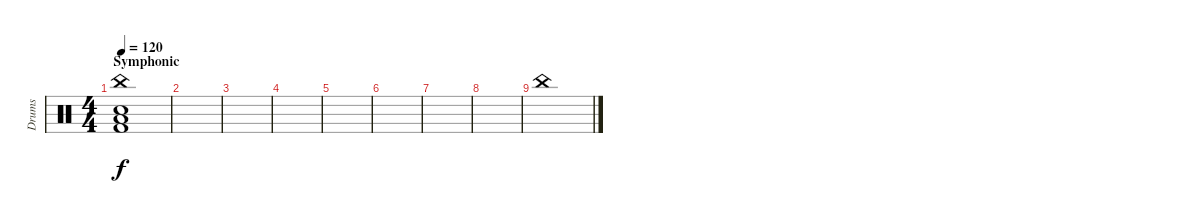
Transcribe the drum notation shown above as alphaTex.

\track ("Drums" "Drums") {instrument percussion}
\staff {score}
\articulation defaults
\ts (4 4)
\section ("" "Symphonic")
\tempo 120
\clef neutral
\ks c
("China (hit)" "Low Tom (hit)" "Electric Snare (hit)" "Kick (hit) 2").1{dy f} |
|
|
|
|
|
|
|
"China (hit)".1
